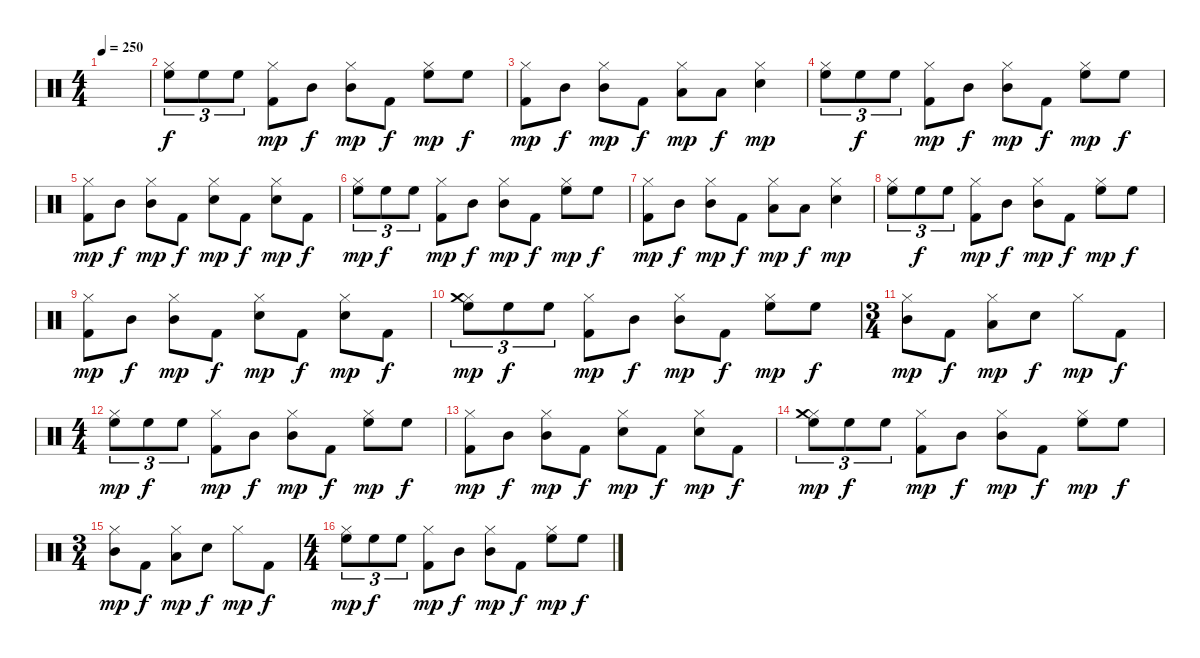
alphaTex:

\track "" {instrument percussion}
\staff {score}
\articulation defaults
\ts (4 4)
\tempo 250
\clef neutral
\ks c
|
("Hi-Hat (closed)" "High Floor Tom (hit)").8{tu (3 2) balance 14} "High Floor Tom (hit)".8{tu (3 2) dy f} "High Floor Tom (hit)".8{tu (3 2)} ("Hi-Hat (closed)" "Kick (hit) 2").8{dy mp} "Mid Tom (hit)".8{dy f balance 8} ("Hi-Hat (closed)" "Mid Tom (hit)").8{dy mp} "Kick (hit) 2".8{dy f} ("Hi-Hat (closed)" "High Floor Tom (hit)").8{dy mp balance 14} "High Floor Tom (hit)".8{dy f} |
("Hi-Hat (closed)" "Kick (hit) 2").8{dy mp balance 8} "Mid Tom (hit)".8{dy f} ("Hi-Hat (closed)" "Mid Tom (hit)").8{dy mp} "Kick (hit) 2".8{dy f} ("Hi-Hat (closed)" "Low Tom (hit)").8{dy mp balance 2} "Low Tom (hit)".8{dy f} ("Hi-Hat (closed)" "Electric Snare (hit)").4{dy mp balance 8} |
("Hi-Hat (closed)" "High Floor Tom (hit)").8{tu (3 2) balance 14} "High Floor Tom (hit)".8{tu (3 2) dy f} "High Floor Tom (hit)".8{tu (3 2)} ("Hi-Hat (closed)" "Kick (hit) 2").8{dy mp balance 8} "Mid Tom (hit)".8{dy f} ("Hi-Hat (closed)" "Mid Tom (hit)").8{dy mp} "Kick (hit) 2".8{dy f} ("Hi-Hat (closed)" "High Floor Tom (hit)").8{dy mp balance 14} "High Floor Tom (hit)".8{dy f} |
("Hi-Hat (closed)" "Kick (hit) 2").8{dy mp balance 8} "Mid Tom (hit)".8{dy f} ("Hi-Hat (closed)" "Mid Tom (hit)").8{dy mp} "Kick (hit) 2".8{dy f} ("Hi-Hat (closed)" "Electric Snare (hit)").8{dy mp} "Kick (hit) 2".8{dy f} ("Hi-Hat (closed)" "Electric Snare (hit)").8{dy mp} "Kick (hit) 2".8{dy f} |
("Hi-Hat (closed)" "High Floor Tom (hit)").8{tu (3 2) dy mp balance 14} "High Floor Tom (hit)".8{tu (3 2) dy f} "High Floor Tom (hit)".8{tu (3 2)} ("Hi-Hat (closed)" "Kick (hit) 2").8{dy mp} "Mid Tom (hit)".8{dy f balance 8} ("Hi-Hat (closed)" "Mid Tom (hit)").8{dy mp} "Kick (hit) 2".8{dy f} ("Hi-Hat (closed)" "High Floor Tom (hit)").8{dy mp balance 14} "High Floor Tom (hit)".8{dy f} |
("Hi-Hat (closed)" "Kick (hit) 2").8{dy mp balance 8} "Mid Tom (hit)".8{dy f} ("Hi-Hat (closed)" "Mid Tom (hit)").8{dy mp} "Kick (hit) 2".8{dy f} ("Hi-Hat (closed)" "Low Tom (hit)").8{dy mp balance 2} "Low Tom (hit)".8{dy f} ("Hi-Hat (closed)" "Electric Snare (hit)").4{dy mp balance 8} |
("Hi-Hat (closed)" "High Floor Tom (hit)").8{tu (3 2) balance 14} "High Floor Tom (hit)".8{tu (3 2) dy f} "High Floor Tom (hit)".8{tu (3 2)} ("Hi-Hat (closed)" "Kick (hit) 2").8{dy mp balance 8} "Mid Tom (hit)".8{dy f} ("Hi-Hat (closed)" "Mid Tom (hit)").8{dy mp} "Kick (hit) 2".8{dy f} ("Hi-Hat (closed)" "High Floor Tom (hit)").8{dy mp balance 14} "High Floor Tom (hit)".8{dy f} |
("Hi-Hat (closed)" "Kick (hit) 2").8{dy mp balance 8} "Mid Tom (hit)".8{dy f} ("Hi-Hat (closed)" "Mid Tom (hit)").8{dy mp} "Kick (hit) 2".8{dy f} ("Hi-Hat (closed)" "Electric Snare (hit)").8{dy mp} "Kick (hit) 2".8{dy f} ("Hi-Hat (closed)" "Electric Snare (hit)").8{dy mp} "Kick (hit) 2".8{dy f} |
("Hi-Hat (closed)" "High Floor Tom (hit)" "Crash medium (hit)").8{tu (3 2) dy mp balance 14} "High Floor Tom (hit)".8{tu (3 2) dy f} "High Floor Tom (hit)".8{tu (3 2)} ("Hi-Hat (closed)" "Kick (hit) 2").8{dy mp balance 8} "Mid Tom (hit)".8{dy f} ("Hi-Hat (closed)" "Mid Tom (hit)").8{dy mp} "Kick (hit) 2".8{dy f} ("Hi-Hat (closed)" "High Floor Tom (hit)").8{dy mp balance 14} "High Floor Tom (hit)".8{dy f} |
\ts (3 4)
("Hi-Hat (closed)" "Mid Tom (hit)").8{dy mp balance 8} "Kick (hit) 2".8{dy f} ("Hi-Hat (closed)" "Low Tom (hit)").8{dy mp balance 2} "Electric Snare (hit)".8{dy f balance 8} "Hi-Hat (closed)".8{dy mp} "Kick (hit) 2".8{dy f} |
\ts (4 4)
("Hi-Hat (closed)" "High Floor Tom (hit)").8{tu (3 2) dy mp balance 14} "High Floor Tom (hit)".8{tu (3 2) dy f} "High Floor Tom (hit)".8{tu (3 2)} ("Hi-Hat (closed)" "Kick (hit) 2").8{dy mp balance 8} "Mid Tom (hit)".8{dy f} ("Hi-Hat (closed)" "Mid Tom (hit)").8{dy mp} "Kick (hit) 2".8{dy f} ("Hi-Hat (closed)" "High Floor Tom (hit)").8{dy mp balance 14} "High Floor Tom (hit)".8{dy f} |
("Hi-Hat (closed)" "Kick (hit) 2").8{dy mp balance 8} "Mid Tom (hit)".8{dy f} ("Hi-Hat (closed)" "Mid Tom (hit)").8{dy mp} "Kick (hit) 2".8{dy f} ("Hi-Hat (closed)" "Electric Snare (hit)").8{dy mp} "Kick (hit) 2".8{dy f} ("Hi-Hat (closed)" "Electric Snare (hit)").8{dy mp} "Kick (hit) 2".8{dy f} |
("Hi-Hat (closed)" "High Floor Tom (hit)" "Crash medium (hit)").8{tu (3 2) dy mp balance 14} "High Floor Tom (hit)".8{tu (3 2) dy f} "High Floor Tom (hit)".8{tu (3 2)} ("Hi-Hat (closed)" "Kick (hit) 2").8{dy mp balance 8} "Mid Tom (hit)".8{dy f} ("Hi-Hat (closed)" "Mid Tom (hit)").8{dy mp} "Kick (hit) 2".8{dy f} ("Hi-Hat (closed)" "High Floor Tom (hit)").8{dy mp balance 14} "High Floor Tom (hit)".8{dy f} |
\ts (3 4)
("Hi-Hat (closed)" "Mid Tom (hit)").8{dy mp balance 8} "Kick (hit) 2".8{dy f} ("Hi-Hat (closed)" "Low Tom (hit)").8{dy mp balance 2} "Electric Snare (hit)".8{dy f balance 8} "Hi-Hat (closed)".8{dy mp} "Kick (hit) 2".8{dy f} |
\ts (4 4)
("Hi-Hat (closed)" "High Floor Tom (hit)").8{tu (3 2) dy mp balance 14} "High Floor Tom (hit)".8{tu (3 2) dy f} "High Floor Tom (hit)".8{tu (3 2)} ("Hi-Hat (closed)" "Kick (hit) 2").8{dy mp balance 8} "Mid Tom (hit)".8{dy f} ("Hi-Hat (closed)" "Mid Tom (hit)").8{dy mp} "Kick (hit) 2".8{dy f} ("Hi-Hat (closed)" "High Floor Tom (hit)").8{dy mp balance 14} "High Floor Tom (hit)".8{dy f}
